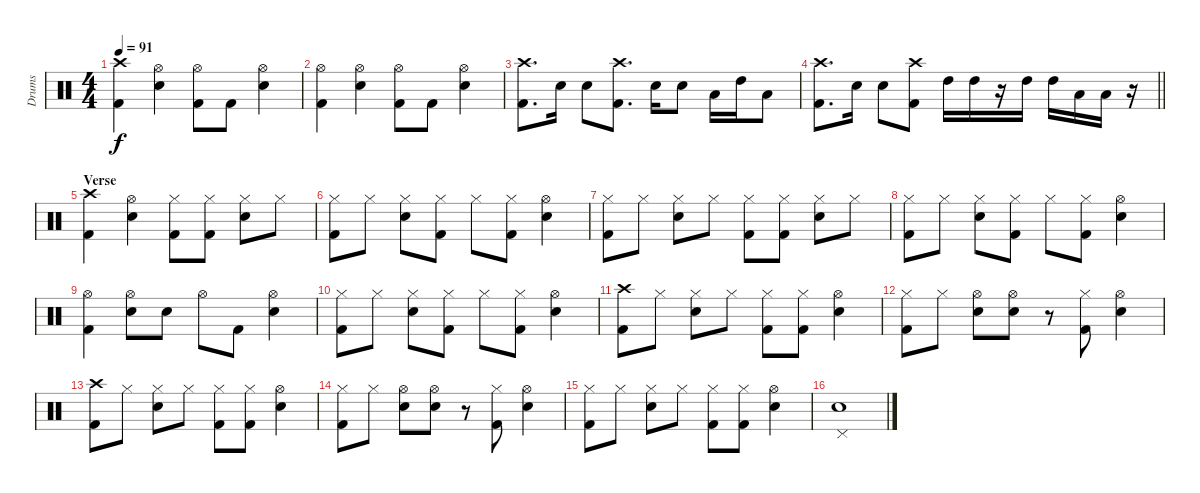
\track ("Drums" "Drums") {instrument percussion}
\staff {score}
\articulation defaults
\ts (4 4)
\tempo 91
\clef neutral
\ks c
("Crash high (hit)" "Kick (hit) 2").4{dy f} ("Hi-Hat (open)" "Snare (hit) 2").4 ("Hi-Hat (open)" "Kick (hit) 2").8 "Kick (hit) 2".8 ("Hi-Hat (open)" "Snare (hit) 2").4 |
("Hi-Hat (open)" "Kick (hit) 2").4 ("Hi-Hat (open)" "Snare (hit) 2").4 ("Hi-Hat (open)" "Kick (hit) 2").8 "Kick (hit) 2".8 ("Hi-Hat (open)" "Snare (hit) 2").4 |
("Crash high (hit)" "Kick (hit) 2").8{d} "Snare (hit) 2".16 "Snare (hit) 2".8 ("Crash high (hit)" "Kick (hit) 2").8{d} "Snare (hit) 2".16 "Snare (hit) 2".8 "Low Tom (hit)".16 "High Tom (hit)".16 "Low Tom (hit)".8 |
\barLineRight lightlight
("Crash high (hit)" "Kick (hit) 2").8{d} "Snare (hit) 2".16 "Snare (hit) 2".8 ("Crash high (hit)" "Kick (hit) 2").8 "High Tom (hit)".16 "High Tom (hit)".16 r.16 "High Tom (hit)".16 "High Tom (hit)".16 "Low Tom (hit)".16 "Low Tom (hit)".16 r.16 |
\section ("" "Verse")
("Crash high (hit)" "Kick (hit) 2").4 ("Hi-Hat (open)" "Snare (hit) 2").4 ("Hi-Hat (closed)" "Kick (hit) 2").8 ("Hi-Hat (closed)" "Kick (hit) 2").8 ("Hi-Hat (closed)" "Snare (hit) 2").8 "Hi-Hat (closed)".8 |
("Hi-Hat (closed)" "Kick (hit) 2").8 "Hi-Hat (closed)".8 ("Hi-Hat (closed)" "Snare (hit) 2").8 ("Hi-Hat (closed)" "Kick (hit) 2").8 "Hi-Hat (closed)".8 ("Hi-Hat (closed)" "Kick (hit) 2").8 ("Hi-Hat (open)" "Snare (hit) 2").4 |
("Hi-Hat (closed)" "Kick (hit) 2").8 "Hi-Hat (closed)".8 ("Hi-Hat (closed)" "Snare (hit) 2").8 "Hi-Hat (closed)".8 ("Hi-Hat (closed)" "Kick (hit) 2").8 ("Hi-Hat (closed)" "Kick (hit) 2").8 ("Hi-Hat (closed)" "Snare (hit) 2").8 "Hi-Hat (closed)".8 |
("Hi-Hat (closed)" "Kick (hit) 2").8 "Hi-Hat (closed)".8 ("Hi-Hat (closed)" "Snare (hit) 2").8 ("Hi-Hat (closed)" "Kick (hit) 2").8 "Hi-Hat (closed)".8 ("Hi-Hat (closed)" "Kick (hit) 2").8 ("Hi-Hat (open)" "Snare (hit) 2").4 |
("Hi-Hat (open)" "Kick (hit) 2").4 ("Hi-Hat (open)" "Snare (hit) 2").8 "Snare (hit) 2".8 "Hi-Hat (open)".8 "Kick (hit) 2".8 ("Hi-Hat (open)" "Snare (hit) 2").4 |
("Hi-Hat (closed)" "Kick (hit) 2").8 "Hi-Hat (closed)".8 ("Hi-Hat (closed)" "Snare (hit) 2").8 ("Hi-Hat (closed)" "Kick (hit) 2").8 "Hi-Hat (closed)".8 ("Hi-Hat (closed)" "Kick (hit) 2").8 ("Hi-Hat (open)" "Snare (hit) 2").4 |
("Crash high (hit)" "Kick (hit) 2").8 "Hi-Hat (closed)".8 ("Hi-Hat (closed)" "Snare (hit) 2").8 "Hi-Hat (closed)".8 ("Hi-Hat (closed)" "Kick (hit) 2").8 ("Hi-Hat (closed)" "Kick (hit) 2").8 ("Hi-Hat (open)" "Snare (hit) 2").4 |
("Hi-Hat (closed)" "Kick (hit) 2").8 "Hi-Hat (closed)".8 ("Hi-Hat (open)" "Snare (hit) 2").8 ("Hi-Hat (open)" "Snare (hit) 2").8 r.8 ("Hi-Hat (closed)" "Kick (hit) 2").8 ("Hi-Hat (open)" "Snare (hit) 2").4 |
("Crash high (hit)" "Kick (hit) 2").8 "Hi-Hat (closed)".8 ("Hi-Hat (closed)" "Snare (hit) 2").8 "Hi-Hat (closed)".8 ("Hi-Hat (closed)" "Kick (hit) 2").8 ("Hi-Hat (closed)" "Kick (hit) 2").8 ("Hi-Hat (open)" "Snare (hit) 2").4 |
("Hi-Hat (closed)" "Kick (hit) 2").8 "Hi-Hat (closed)".8 ("Hi-Hat (open)" "Snare (hit) 2").8 ("Hi-Hat (open)" "Snare (hit) 2").8 r.8 ("Hi-Hat (closed)" "Kick (hit) 2").8 ("Hi-Hat (open)" "Snare (hit) 2").4 |
("Hi-Hat (closed)" "Kick (hit) 2").8 "Hi-Hat (closed)".8 ("Hi-Hat (closed)" "Snare (hit) 2").8 "Hi-Hat (closed)".8 ("Hi-Hat (closed)" "Kick (hit) 2").8 ("Hi-Hat (closed)" "Kick (hit) 2").8 ("Hi-Hat (open)" "Snare (hit) 2").4 |
("Pedal Hi-Hat (hit)" "Snare (hit) 2").1
